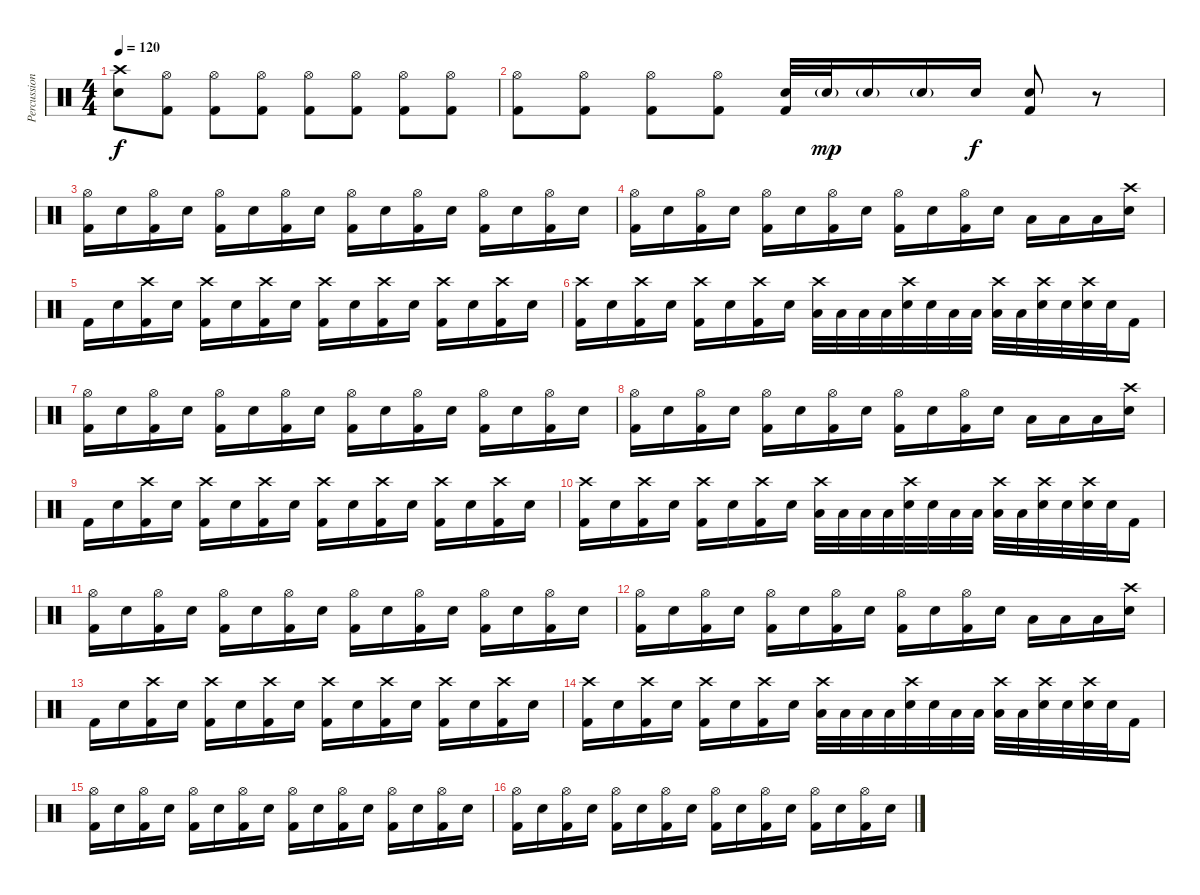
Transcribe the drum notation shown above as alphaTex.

\track ("Percussion" "Percussion") {instrument percussion}
\staff {score}
\articulation defaults
\ts (4 4)
\tempo 120
\clef neutral
\ks c
("Crash high (hit)" "Electric Snare (hit)").8{dy f} ("Hi-Hat (open)" "Kick (hit) 2").8 ("Hi-Hat (open)" "Kick (hit) 2").8 ("Hi-Hat (open)" "Kick (hit) 2").8 ("Hi-Hat (open)" "Kick (hit) 2").8 ("Hi-Hat (open)" "Kick (hit) 2").8 ("Hi-Hat (open)" "Kick (hit) 2").8 ("Hi-Hat (open)" "Kick (hit) 2").8 |
("Hi-Hat (open)" "Kick (hit) 2").8 ("Hi-Hat (open)" "Kick (hit) 2").8 ("Hi-Hat (open)" "Kick (hit) 2").8 ("Hi-Hat (open)" "Kick (hit) 2").8 ("Electric Snare (hit)" "Kick (hit) 2").32 "Electric Snare (hit)"{g}.32{dy mp} "Electric Snare (hit)"{g}.16 "Electric Snare (hit)"{g}.16 "Electric Snare (hit)".16{dy f} ("Electric Snare (hit)" "Kick (hit) 2").8 r.8 |
("Hi-Hat (open)" "Kick (hit) 2").16 "Electric Snare (hit)".16 ("Hi-Hat (open)" "Kick (hit) 2").16 "Electric Snare (hit)".16 ("Hi-Hat (open)" "Kick (hit) 2").16 "Electric Snare (hit)".16 ("Hi-Hat (open)" "Kick (hit) 2").16 "Electric Snare (hit)".16 ("Hi-Hat (open)" "Kick (hit) 2").16 "Electric Snare (hit)".16 ("Hi-Hat (open)" "Kick (hit) 2").16 "Electric Snare (hit)".16 ("Hi-Hat (open)" "Kick (hit) 2").16 "Electric Snare (hit)".16 ("Hi-Hat (open)" "Kick (hit) 2").16 "Electric Snare (hit)".16 |
("Hi-Hat (open)" "Kick (hit) 2").16 "Electric Snare (hit)".16 ("Hi-Hat (open)" "Kick (hit) 2").16 "Electric Snare (hit)".16 ("Hi-Hat (open)" "Kick (hit) 2").16 "Electric Snare (hit)".16 ("Hi-Hat (open)" "Kick (hit) 2").16 "Electric Snare (hit)".16 ("Hi-Hat (open)" "Kick (hit) 2").16 "Electric Snare (hit)".16 ("Hi-Hat (open)" "Kick (hit) 2").16 "Electric Snare (hit)".16 "Low Tom (hit)".16 "Low Tom (hit)".16 "Low Tom (hit)".16 ("Crash high (hit)" "Electric Snare (hit)").16 |
"Kick (hit) 2".16 "Electric Snare (hit)".16 ("Crash high (hit)" "Kick (hit) 2").16 "Electric Snare (hit)".16 ("Crash high (hit)" "Kick (hit) 2").16 "Electric Snare (hit)".16 ("Crash high (hit)" "Kick (hit) 2").16 "Electric Snare (hit)".16 ("Crash high (hit)" "Kick (hit) 2").16 "Electric Snare (hit)".16 ("Crash high (hit)" "Kick (hit) 2").16 "Electric Snare (hit)".16 ("Crash high (hit)" "Kick (hit) 2").16 "Electric Snare (hit)".16 ("Crash high (hit)" "Kick (hit) 2").16 "Electric Snare (hit)".16 |
("Crash high (hit)" "Kick (hit) 2").16 "Electric Snare (hit)".16 ("Crash high (hit)" "Kick (hit) 2").16 "Electric Snare (hit)".16 ("Crash high (hit)" "Kick (hit) 2").16 "Electric Snare (hit)".16 ("Crash high (hit)" "Kick (hit) 2").16 "Electric Snare (hit)".16 ("Crash high (hit)" "Low Tom (hit)").32 "Low Tom (hit)".32 "Low Tom (hit)".32 "Low Tom (hit)".32 ("Crash high (hit)" "Electric Snare (hit)").32 "Electric Snare (hit)".32 "Low Tom (hit)".32 "Low Tom (hit)".32 ("Crash high (hit)" "Low Tom (hit)").32 "Low Tom (hit)".32 ("Crash high (hit)" "Electric Snare (hit)").32 "Electric Snare (hit)".32 ("Crash high (hit)" "Electric Snare (hit)").32 "Electric Snare (hit)".32 "Kick (hit) 2".16 |
("Hi-Hat (open)" "Kick (hit) 2").16 "Electric Snare (hit)".16 ("Hi-Hat (open)" "Kick (hit) 2").16 "Electric Snare (hit)".16 ("Hi-Hat (open)" "Kick (hit) 2").16 "Electric Snare (hit)".16 ("Hi-Hat (open)" "Kick (hit) 2").16 "Electric Snare (hit)".16 ("Hi-Hat (open)" "Kick (hit) 2").16 "Electric Snare (hit)".16 ("Hi-Hat (open)" "Kick (hit) 2").16 "Electric Snare (hit)".16 ("Hi-Hat (open)" "Kick (hit) 2").16 "Electric Snare (hit)".16 ("Hi-Hat (open)" "Kick (hit) 2").16 "Electric Snare (hit)".16 |
("Hi-Hat (open)" "Kick (hit) 2").16 "Electric Snare (hit)".16 ("Hi-Hat (open)" "Kick (hit) 2").16 "Electric Snare (hit)".16 ("Hi-Hat (open)" "Kick (hit) 2").16 "Electric Snare (hit)".16 ("Hi-Hat (open)" "Kick (hit) 2").16 "Electric Snare (hit)".16 ("Hi-Hat (open)" "Kick (hit) 2").16 "Electric Snare (hit)".16 ("Hi-Hat (open)" "Kick (hit) 2").16 "Electric Snare (hit)".16 "Low Tom (hit)".16 "Low Tom (hit)".16 "Low Tom (hit)".16 ("Crash high (hit)" "Electric Snare (hit)").16 |
"Kick (hit) 2".16 "Electric Snare (hit)".16 ("Crash high (hit)" "Kick (hit) 2").16 "Electric Snare (hit)".16 ("Crash high (hit)" "Kick (hit) 2").16 "Electric Snare (hit)".16 ("Crash high (hit)" "Kick (hit) 2").16 "Electric Snare (hit)".16 ("Crash high (hit)" "Kick (hit) 2").16 "Electric Snare (hit)".16 ("Crash high (hit)" "Kick (hit) 2").16 "Electric Snare (hit)".16 ("Crash high (hit)" "Kick (hit) 2").16 "Electric Snare (hit)".16 ("Crash high (hit)" "Kick (hit) 2").16 "Electric Snare (hit)".16 |
("Crash high (hit)" "Kick (hit) 2").16 "Electric Snare (hit)".16 ("Crash high (hit)" "Kick (hit) 2").16 "Electric Snare (hit)".16 ("Crash high (hit)" "Kick (hit) 2").16 "Electric Snare (hit)".16 ("Crash high (hit)" "Kick (hit) 2").16 "Electric Snare (hit)".16 ("Crash high (hit)" "Low Tom (hit)").32 "Low Tom (hit)".32 "Low Tom (hit)".32 "Low Tom (hit)".32 ("Crash high (hit)" "Electric Snare (hit)").32 "Electric Snare (hit)".32 "Low Tom (hit)".32 "Low Tom (hit)".32 ("Crash high (hit)" "Low Tom (hit)").32 "Low Tom (hit)".32 ("Crash high (hit)" "Electric Snare (hit)").32 "Electric Snare (hit)".32 ("Crash high (hit)" "Electric Snare (hit)").32 "Electric Snare (hit)".32 "Kick (hit) 2".16 |
("Hi-Hat (open)" "Kick (hit) 2").16 "Electric Snare (hit)".16 ("Hi-Hat (open)" "Kick (hit) 2").16 "Electric Snare (hit)".16 ("Hi-Hat (open)" "Kick (hit) 2").16 "Electric Snare (hit)".16 ("Hi-Hat (open)" "Kick (hit) 2").16 "Electric Snare (hit)".16 ("Hi-Hat (open)" "Kick (hit) 2").16 "Electric Snare (hit)".16 ("Hi-Hat (open)" "Kick (hit) 2").16 "Electric Snare (hit)".16 ("Hi-Hat (open)" "Kick (hit) 2").16 "Electric Snare (hit)".16 ("Hi-Hat (open)" "Kick (hit) 2").16 "Electric Snare (hit)".16 |
("Hi-Hat (open)" "Kick (hit) 2").16 "Electric Snare (hit)".16 ("Hi-Hat (open)" "Kick (hit) 2").16 "Electric Snare (hit)".16 ("Hi-Hat (open)" "Kick (hit) 2").16 "Electric Snare (hit)".16 ("Hi-Hat (open)" "Kick (hit) 2").16 "Electric Snare (hit)".16 ("Hi-Hat (open)" "Kick (hit) 2").16 "Electric Snare (hit)".16 ("Hi-Hat (open)" "Kick (hit) 2").16 "Electric Snare (hit)".16 "Low Tom (hit)".16 "Low Tom (hit)".16 "Low Tom (hit)".16 ("Crash high (hit)" "Electric Snare (hit)").16 |
"Kick (hit) 2".16 "Electric Snare (hit)".16 ("Crash high (hit)" "Kick (hit) 2").16 "Electric Snare (hit)".16 ("Crash high (hit)" "Kick (hit) 2").16 "Electric Snare (hit)".16 ("Crash high (hit)" "Kick (hit) 2").16 "Electric Snare (hit)".16 ("Crash high (hit)" "Kick (hit) 2").16 "Electric Snare (hit)".16 ("Crash high (hit)" "Kick (hit) 2").16 "Electric Snare (hit)".16 ("Crash high (hit)" "Kick (hit) 2").16 "Electric Snare (hit)".16 ("Crash high (hit)" "Kick (hit) 2").16 "Electric Snare (hit)".16 |
("Crash high (hit)" "Kick (hit) 2").16 "Electric Snare (hit)".16 ("Crash high (hit)" "Kick (hit) 2").16 "Electric Snare (hit)".16 ("Crash high (hit)" "Kick (hit) 2").16 "Electric Snare (hit)".16 ("Crash high (hit)" "Kick (hit) 2").16 "Electric Snare (hit)".16 ("Crash high (hit)" "Low Tom (hit)").32 "Low Tom (hit)".32 "Low Tom (hit)".32 "Low Tom (hit)".32 ("Crash high (hit)" "Electric Snare (hit)").32 "Electric Snare (hit)".32 "Low Tom (hit)".32 "Low Tom (hit)".32 ("Crash high (hit)" "Low Tom (hit)").32 "Low Tom (hit)".32 ("Crash high (hit)" "Electric Snare (hit)").32 "Electric Snare (hit)".32 ("Crash high (hit)" "Electric Snare (hit)").32 "Electric Snare (hit)".32 "Kick (hit) 2".16 |
("Hi-Hat (open)" "Kick (hit) 2").16 "Electric Snare (hit)".16 ("Hi-Hat (open)" "Kick (hit) 2").16 "Electric Snare (hit)".16 ("Hi-Hat (open)" "Kick (hit) 2").16 "Electric Snare (hit)".16 ("Hi-Hat (open)" "Kick (hit) 2").16 "Electric Snare (hit)".16 ("Hi-Hat (open)" "Kick (hit) 2").16 "Electric Snare (hit)".16 ("Hi-Hat (open)" "Kick (hit) 2").16 "Electric Snare (hit)".16 ("Hi-Hat (open)" "Kick (hit) 2").16 "Electric Snare (hit)".16 ("Hi-Hat (open)" "Kick (hit) 2").16 "Electric Snare (hit)".16 |
("Hi-Hat (open)" "Kick (hit) 2").16 "Electric Snare (hit)".16 ("Hi-Hat (open)" "Kick (hit) 2").16 "Electric Snare (hit)".16 ("Hi-Hat (open)" "Kick (hit) 2").16 "Electric Snare (hit)".16 ("Hi-Hat (open)" "Kick (hit) 2").16 "Electric Snare (hit)".16 ("Hi-Hat (open)" "Kick (hit) 2").16 "Electric Snare (hit)".16 ("Hi-Hat (open)" "Kick (hit) 2").16 "Electric Snare (hit)".16 ("Hi-Hat (open)" "Kick (hit) 2").16 "Electric Snare (hit)".16 ("Hi-Hat (open)" "Kick (hit) 2").16 "Electric Snare (hit)".16
